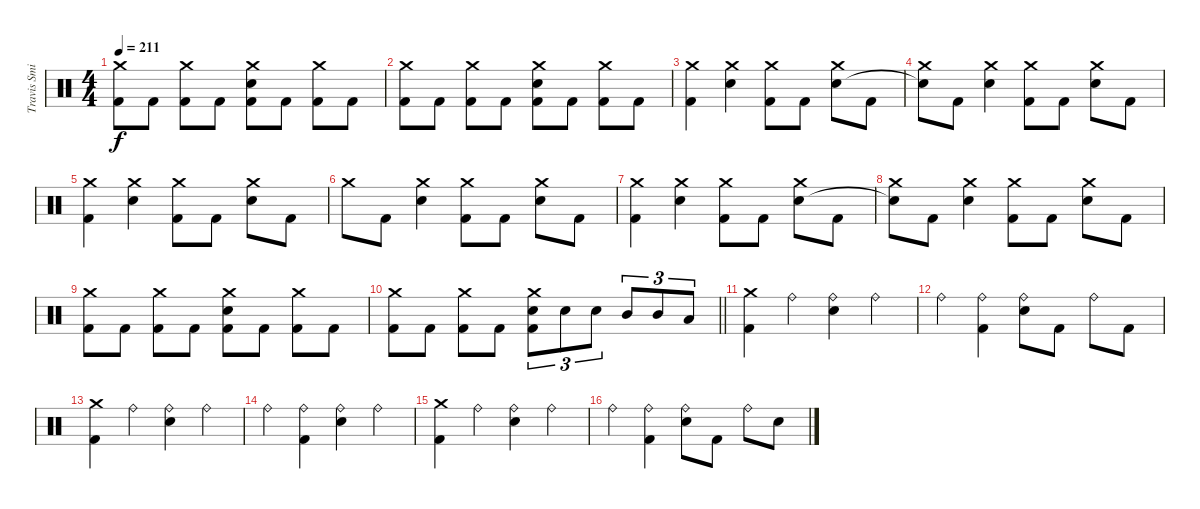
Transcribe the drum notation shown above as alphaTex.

\track ("Travis Smith" "Travis Smi") {instrument percussion}
\staff {score}
\articulation defaults
\ts (4 4)
\tempo 211
\clef neutral
\ks c
("Crash medium (hit)" "Kick (hit) 2").8{dy f} "Kick (hit) 2".8 ("Crash medium (hit)" "Kick (hit) 2").8 "Kick (hit) 2".8 ("Crash medium (hit)" "Electric Snare (hit)" "Kick (hit) 2").8 "Kick (hit) 2".8 ("Crash medium (hit)" "Kick (hit) 2").8 "Kick (hit) 2".8 |
("Crash medium (hit)" "Kick (hit) 2").8 "Kick (hit) 2".8 ("Crash medium (hit)" "Kick (hit) 2").8 "Kick (hit) 2".8 ("Crash medium (hit)" "Electric Snare (hit)" "Kick (hit) 2").8 "Kick (hit) 2".8 ("Crash medium (hit)" "Kick (hit) 2").8 "Kick (hit) 2".8 |
("Crash medium (hit)" "Kick (hit) 2").4 ("Crash medium (hit)" "Electric Snare (hit)").4 ("Crash medium (hit)" "Kick (hit) 2").8 "Kick (hit) 2".8 ("Crash medium (hit)" "Electric Snare (hit)").8 "Kick (hit) 2".8 |
("Crash medium (hit)" "Snare (hit)"{t}).8 "Kick (hit) 2".8 ("Crash medium (hit)" "Electric Snare (hit)").4 ("Crash medium (hit)" "Kick (hit) 2").8 "Kick (hit) 2".8 ("Crash medium (hit)" "Electric Snare (hit)").8 "Kick (hit) 2".8 |
("Crash medium (hit)" "Kick (hit) 2").4 ("Crash medium (hit)" "Electric Snare (hit)").4 ("Crash medium (hit)" "Kick (hit) 2").8 "Kick (hit) 2".8 ("Crash medium (hit)" "Electric Snare (hit)").8 "Kick (hit) 2".8 |
"Crash medium (hit)".8 "Kick (hit) 2".8 ("Crash medium (hit)" "Electric Snare (hit)").4 ("Crash medium (hit)" "Kick (hit) 2").8 "Kick (hit) 2".8 ("Crash medium (hit)" "Electric Snare (hit)").8 "Kick (hit) 2".8 |
("Crash medium (hit)" "Kick (hit) 2").4 ("Crash medium (hit)" "Electric Snare (hit)").4 ("Crash medium (hit)" "Kick (hit) 2").8 "Kick (hit) 2".8 ("Crash medium (hit)" "Electric Snare (hit)").8 "Kick (hit) 2".8 |
("Crash medium (hit)" "Snare (hit)"{t}).8 "Kick (hit) 2".8 ("Crash medium (hit)" "Electric Snare (hit)").4 ("Crash medium (hit)" "Kick (hit) 2").8 "Kick (hit) 2".8 ("Crash medium (hit)" "Electric Snare (hit)").8 "Kick (hit) 2".8 |
("Crash medium (hit)" "Kick (hit) 2").8 "Kick (hit) 2".8 ("Crash medium (hit)" "Kick (hit) 2").8 "Kick (hit) 2".8 ("Crash medium (hit)" "Electric Snare (hit)" "Kick (hit) 2").8 "Kick (hit) 2".8 ("Crash medium (hit)" "Kick (hit) 2").8 "Kick (hit) 2".8 |
\barLineRight lightlight
("Crash medium (hit)" "Kick (hit) 2").8 "Kick (hit) 2".8 ("Crash medium (hit)" "Kick (hit) 2").8 "Kick (hit) 2".8 ("Crash medium (hit)" "Electric Snare (hit)" "Kick (hit) 2").8{tu (3 2)} "Electric Snare (hit)".8{tu (3 2)} "Electric Snare (hit)".8{tu (3 2)} "Mid Tom (hit)".8{tu (3 2)} "Mid Tom (hit)".8{tu (3 2)} "Low Tom (hit)".8{tu (3 2)} |
("Crash medium (hit)" "Kick (hit) 2").4 "Ride (bell)".4 ("Ride (bell)" "Electric Snare (hit)").4 "Ride (bell)".4 |
"Ride (bell)".4 ("Ride (bell)" "Kick (hit) 2").4 ("Ride (bell)" "Electric Snare (hit)").8 "Kick (hit) 2".8 "Ride (bell)".8 "Kick (hit) 2".8 |
("Crash medium (hit)" "Kick (hit) 2").4 "Ride (bell)".4 ("Ride (bell)" "Electric Snare (hit)").4 "Ride (bell)".4 |
"Ride (bell)".4 ("Ride (bell)" "Kick (hit) 2").4 ("Ride (bell)" "Electric Snare (hit)").4 "Ride (bell)".4 |
("Crash medium (hit)" "Kick (hit) 2").4 "Ride (bell)".4 ("Ride (bell)" "Electric Snare (hit)").4 "Ride (bell)".4 |
"Ride (bell)".4 ("Ride (bell)" "Kick (hit) 2").4 ("Ride (bell)" "Electric Snare (hit)").8 "Kick (hit) 2".8 "Ride (bell)".8 "Electric Snare (hit)".8
